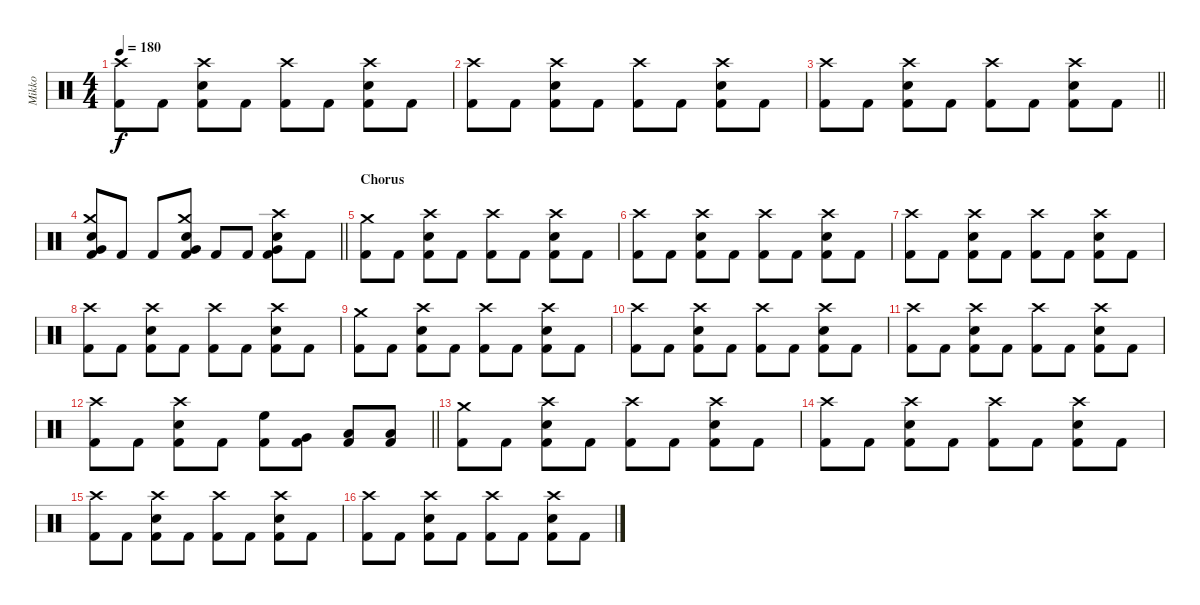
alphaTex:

\track ("Mikko" "Mikko") {instrument percussion}
\staff {score}
\articulation defaults
\ts (4 4)
\tempo 180
\clef neutral
\ks c
("Crash high (hit)" "Kick (hit) 2").8{dy f} "Kick (hit) 2".8 ("Crash high (hit)" "Electric Snare (hit)" "Kick (hit) 2").8 "Kick (hit) 2".8 ("Crash high (hit)" "Kick (hit) 2").8 "Kick (hit) 2".8 ("Crash high (hit)" "Electric Snare (hit)" "Kick (hit) 2").8 "Kick (hit) 2".8 |
("Crash high (hit)" "Kick (hit) 2").8 "Kick (hit) 2".8 ("Crash high (hit)" "Electric Snare (hit)" "Kick (hit) 2").8 "Kick (hit) 2".8 ("Crash high (hit)" "Kick (hit) 2").8 "Kick (hit) 2".8 ("Crash high (hit)" "Electric Snare (hit)" "Kick (hit) 2").8 "Kick (hit) 2".8 |
\barLineRight lightlight
("Crash high (hit)" "Kick (hit) 2").8 "Kick (hit) 2".8 ("Crash high (hit)" "Electric Snare (hit)" "Kick (hit) 2").8 "Kick (hit) 2".8 ("Crash high (hit)" "Kick (hit) 2").8 "Kick (hit) 2".8 ("Crash high (hit)" "Electric Snare (hit)" "Kick (hit) 2").8 "Kick (hit) 2".8 |
\barLineRight lightlight
("Crash medium (hit)" "Very Low Tom (hit)" "Electric Snare (hit)" "Kick (hit) 2").8 "Kick (hit) 2".8 "Kick (hit) 2".8 ("Crash medium (hit)" "Very Low Tom (hit)" "Electric Snare (hit)" "Kick (hit) 2").8 "Kick (hit) 2".8 "Kick (hit) 2".8 ("Crash high (hit)" "Very Low Tom (hit)" "Electric Snare (hit)" "Kick (hit) 2").8 "Kick (hit) 2".8 |
\section ("" "Chorus")
("Crash medium (hit)" "Kick (hit) 2").8 "Kick (hit) 2".8 ("Crash high (hit)" "Electric Snare (hit)" "Kick (hit) 2").8 "Kick (hit) 2".8 ("Crash high (hit)" "Kick (hit) 2").8 "Kick (hit) 2".8 ("Crash high (hit)" "Electric Snare (hit)" "Kick (hit) 2").8 "Kick (hit) 2".8 |
("Crash high (hit)" "Kick (hit) 2").8 "Kick (hit) 2".8 ("Crash high (hit)" "Electric Snare (hit)" "Kick (hit) 2").8 "Kick (hit) 2".8 ("Crash high (hit)" "Kick (hit) 2").8 "Kick (hit) 2".8 ("Crash high (hit)" "Electric Snare (hit)" "Kick (hit) 2").8 "Kick (hit) 2".8 |
("Crash high (hit)" "Kick (hit) 2").8 "Kick (hit) 2".8 ("Crash high (hit)" "Electric Snare (hit)" "Kick (hit) 2").8 "Kick (hit) 2".8 ("Crash high (hit)" "Kick (hit) 2").8 "Kick (hit) 2".8 ("Crash high (hit)" "Electric Snare (hit)" "Kick (hit) 2").8 "Kick (hit) 2".8 |
("Crash high (hit)" "Kick (hit) 2").8 "Kick (hit) 2".8 ("Crash high (hit)" "Electric Snare (hit)" "Kick (hit) 2").8 "Kick (hit) 2".8 ("Crash high (hit)" "Kick (hit) 2").8 "Kick (hit) 2".8 ("Crash high (hit)" "Electric Snare (hit)" "Kick (hit) 2").8 "Kick (hit) 2".8 |
("Crash medium (hit)" "Kick (hit) 2").8 "Kick (hit) 2".8 ("Crash high (hit)" "Electric Snare (hit)" "Kick (hit) 2").8 "Kick (hit) 2".8 ("Crash high (hit)" "Kick (hit) 2").8 "Kick (hit) 2".8 ("Crash high (hit)" "Electric Snare (hit)" "Kick (hit) 2").8 "Kick (hit) 2".8 |
("Crash high (hit)" "Kick (hit) 2").8 "Kick (hit) 2".8 ("Crash high (hit)" "Electric Snare (hit)" "Kick (hit) 2").8 "Kick (hit) 2".8 ("Crash high (hit)" "Kick (hit) 2").8 "Kick (hit) 2".8 ("Crash high (hit)" "Electric Snare (hit)" "Kick (hit) 2").8 "Kick (hit) 2".8 |
("Crash high (hit)" "Kick (hit) 2").8 "Kick (hit) 2".8 ("Crash high (hit)" "Electric Snare (hit)" "Kick (hit) 2").8 "Kick (hit) 2".8 ("Crash high (hit)" "Kick (hit) 2").8 "Kick (hit) 2".8 ("Crash high (hit)" "Electric Snare (hit)" "Kick (hit) 2").8 "Kick (hit) 2".8 |
\barLineRight lightlight
("Crash high (hit)" "Kick (hit) 2").8 "Kick (hit) 2".8 ("Crash high (hit)" "Electric Snare (hit)" "Kick (hit) 2").8 "Kick (hit) 2".8 ("High Floor Tom (hit)" "Kick (hit) 2").8 ("Very Low Tom (hit)" "Kick (hit) 2").8 ("Low Floor Tom (hit)" "Kick (hit) 2").8 ("Low Tom (hit)" "Kick (hit) 2").8 |
("Crash medium (hit)" "Kick (hit) 2").8 "Kick (hit) 2".8 ("Crash high (hit)" "Electric Snare (hit)" "Kick (hit) 2").8 "Kick (hit) 2".8 ("Crash high (hit)" "Kick (hit) 2").8 "Kick (hit) 2".8 ("Crash high (hit)" "Electric Snare (hit)" "Kick (hit) 2").8 "Kick (hit) 2".8 |
("Crash high (hit)" "Kick (hit) 2").8 "Kick (hit) 2".8 ("Crash high (hit)" "Electric Snare (hit)" "Kick (hit) 2").8 "Kick (hit) 2".8 ("Crash high (hit)" "Kick (hit) 2").8 "Kick (hit) 2".8 ("Crash high (hit)" "Electric Snare (hit)" "Kick (hit) 2").8 "Kick (hit) 2".8 |
("Crash high (hit)" "Kick (hit) 2").8 "Kick (hit) 2".8 ("Crash high (hit)" "Electric Snare (hit)" "Kick (hit) 2").8 "Kick (hit) 2".8 ("Crash high (hit)" "Kick (hit) 2").8 "Kick (hit) 2".8 ("Crash high (hit)" "Electric Snare (hit)" "Kick (hit) 2").8 "Kick (hit) 2".8 |
("Crash high (hit)" "Kick (hit) 2").8 "Kick (hit) 2".8 ("Crash high (hit)" "Electric Snare (hit)" "Kick (hit) 2").8 "Kick (hit) 2".8 ("Crash high (hit)" "Kick (hit) 2").8 "Kick (hit) 2".8 ("Crash high (hit)" "Electric Snare (hit)" "Kick (hit) 2").8 "Kick (hit) 2".8
